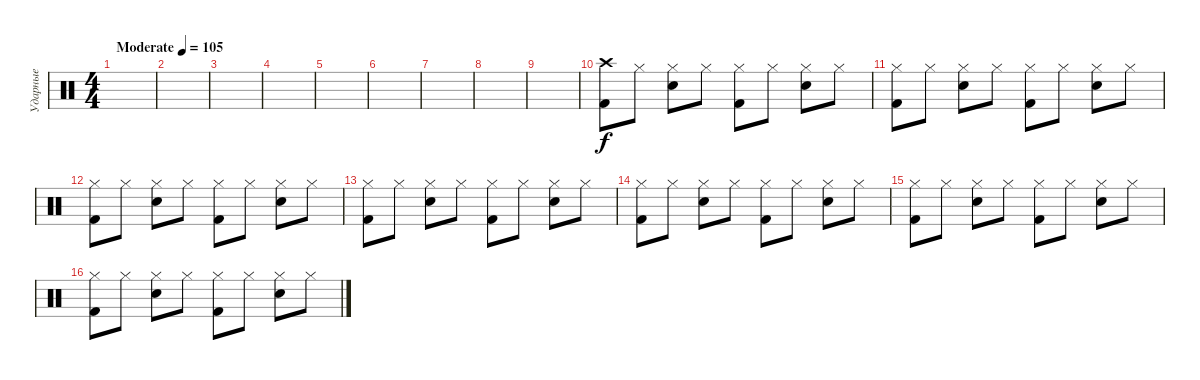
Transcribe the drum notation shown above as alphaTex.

\track ("Ударные" "Ударные") {instrument percussion}
\staff {score}
\articulation defaults
\ts (4 4)
\tempo (105 "Moderate")
\clef neutral
\ks c
|
|
|
|
|
|
|
|
|
("Crash high (hit)" "Kick (hit) 2").8 "Hi-Hat (closed)".8 ("Hi-Hat (closed)" "Snare (hit) 2").8 "Hi-Hat (closed)".8 ("Hi-Hat (closed)" "Kick (hit) 2").8 "Hi-Hat (closed)".8 ("Hi-Hat (closed)" "Snare (hit) 2").8 "Hi-Hat (closed)".8 |
("Hi-Hat (closed)" "Kick (hit) 2").8 "Hi-Hat (closed)".8 ("Hi-Hat (closed)" "Snare (hit) 2").8 "Hi-Hat (closed)".8 ("Hi-Hat (closed)" "Kick (hit) 2").8 "Hi-Hat (closed)".8 ("Hi-Hat (closed)" "Snare (hit) 2").8 "Hi-Hat (closed)".8 |
("Hi-Hat (closed)" "Kick (hit) 2").8 "Hi-Hat (closed)".8 ("Hi-Hat (closed)" "Snare (hit) 2").8 "Hi-Hat (closed)".8 ("Hi-Hat (closed)" "Kick (hit) 2").8 "Hi-Hat (closed)".8 ("Hi-Hat (closed)" "Snare (hit) 2").8 "Hi-Hat (closed)".8 |
("Hi-Hat (closed)" "Kick (hit) 2").8 "Hi-Hat (closed)".8 ("Hi-Hat (closed)" "Snare (hit) 2").8 "Hi-Hat (closed)".8 ("Hi-Hat (closed)" "Kick (hit) 2").8 "Hi-Hat (closed)".8 ("Hi-Hat (closed)" "Snare (hit) 2").8 "Hi-Hat (closed)".8 |
("Hi-Hat (closed)" "Kick (hit) 2").8 "Hi-Hat (closed)".8 ("Hi-Hat (closed)" "Snare (hit) 2").8 "Hi-Hat (closed)".8 ("Hi-Hat (closed)" "Kick (hit) 2").8 "Hi-Hat (closed)".8 ("Hi-Hat (closed)" "Snare (hit) 2").8 "Hi-Hat (closed)".8 |
("Hi-Hat (closed)" "Kick (hit) 2").8 "Hi-Hat (closed)".8 ("Hi-Hat (closed)" "Snare (hit) 2").8 "Hi-Hat (closed)".8 ("Hi-Hat (closed)" "Kick (hit) 2").8 "Hi-Hat (closed)".8 ("Hi-Hat (closed)" "Snare (hit) 2").8 "Hi-Hat (closed)".8 |
("Hi-Hat (closed)" "Kick (hit) 2").8 "Hi-Hat (closed)".8 ("Hi-Hat (closed)" "Snare (hit) 2").8 "Hi-Hat (closed)".8 ("Hi-Hat (closed)" "Kick (hit) 2").8 "Hi-Hat (closed)".8 ("Hi-Hat (closed)" "Snare (hit) 2").8 "Hi-Hat (closed)".8
